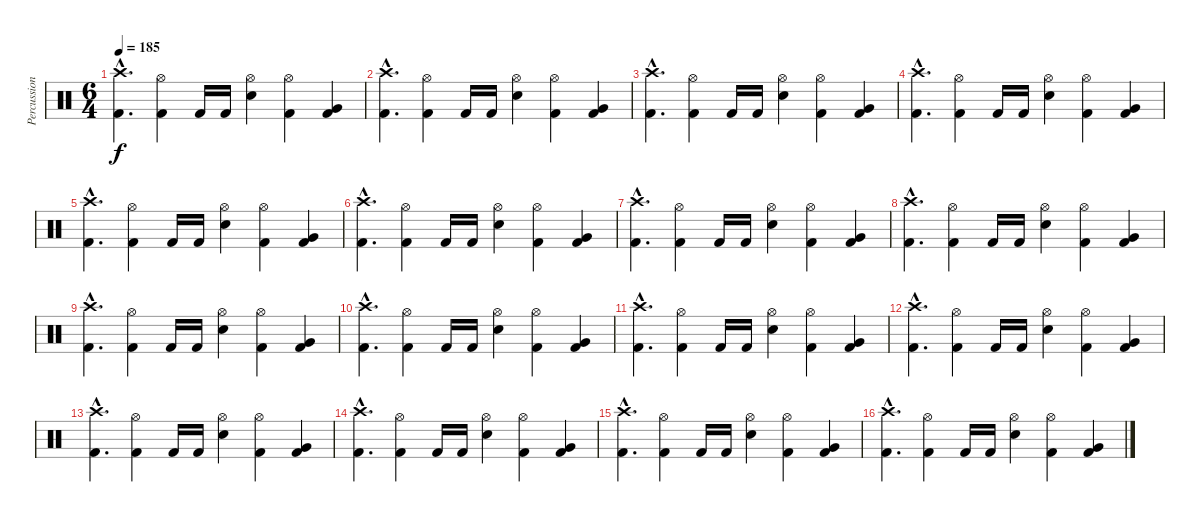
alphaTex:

\track ("Percussion" "Percussion") {instrument percussion}
\staff {score}
\articulation defaults
\ts (6 4)
\tempo 185
\clef neutral
\ks c
("Crash high (hit)"{hac} "Kick (hit) 2"{hac}).4{d dy f} ("Hi-Hat (open)" "Kick (hit) 2").4 "Kick (hit) 2".16 "Kick (hit) 2".16 ("Hi-Hat (open)" "Electric Snare (hit)").4 ("Hi-Hat (open)" "Kick (hit) 2").4 ("Very Low Tom (hit)" "Kick (hit) 2").4 |
("Crash high (hit)"{hac} "Kick (hit) 2"{hac}).4{d} ("Hi-Hat (open)" "Kick (hit) 2").4 "Kick (hit) 2".16 "Kick (hit) 2".16 ("Hi-Hat (open)" "Electric Snare (hit)").4 ("Hi-Hat (open)" "Kick (hit) 2").4 ("Very Low Tom (hit)" "Kick (hit) 2").4 |
("Crash high (hit)"{hac} "Kick (hit) 2"{hac}).4{d} ("Hi-Hat (open)" "Kick (hit) 2").4 "Kick (hit) 2".16 "Kick (hit) 2".16 ("Hi-Hat (open)" "Electric Snare (hit)").4 ("Hi-Hat (open)" "Kick (hit) 2").4 ("Very Low Tom (hit)" "Kick (hit) 2").4 |
("Crash high (hit)"{hac} "Kick (hit) 2"{hac}).4{d} ("Hi-Hat (open)" "Kick (hit) 2").4 "Kick (hit) 2".16 "Kick (hit) 2".16 ("Hi-Hat (open)" "Electric Snare (hit)").4 ("Hi-Hat (open)" "Kick (hit) 2").4 ("Very Low Tom (hit)" "Kick (hit) 2").4 |
("Crash high (hit)"{hac} "Kick (hit) 2"{hac}).4{d} ("Hi-Hat (open)" "Kick (hit) 2").4 "Kick (hit) 2".16 "Kick (hit) 2".16 ("Hi-Hat (open)" "Electric Snare (hit)").4 ("Hi-Hat (open)" "Kick (hit) 2").4 ("Very Low Tom (hit)" "Kick (hit) 2").4 |
("Crash high (hit)"{hac} "Kick (hit) 2"{hac}).4{d} ("Hi-Hat (open)" "Kick (hit) 2").4 "Kick (hit) 2".16 "Kick (hit) 2".16 ("Hi-Hat (open)" "Electric Snare (hit)").4 ("Hi-Hat (open)" "Kick (hit) 2").4 ("Very Low Tom (hit)" "Kick (hit) 2").4 |
("Crash high (hit)"{hac} "Kick (hit) 2"{hac}).4{d} ("Hi-Hat (open)" "Kick (hit) 2").4 "Kick (hit) 2".16 "Kick (hit) 2".16 ("Hi-Hat (open)" "Electric Snare (hit)").4 ("Hi-Hat (open)" "Kick (hit) 2").4 ("Very Low Tom (hit)" "Kick (hit) 2").4 |
("Crash high (hit)"{hac} "Kick (hit) 2"{hac}).4{d} ("Hi-Hat (open)" "Kick (hit) 2").4 "Kick (hit) 2".16 "Kick (hit) 2".16 ("Hi-Hat (open)" "Electric Snare (hit)").4 ("Hi-Hat (open)" "Kick (hit) 2").4 ("Very Low Tom (hit)" "Kick (hit) 2").4 |
("Crash high (hit)"{hac} "Kick (hit) 2"{hac}).4{d} ("Hi-Hat (open)" "Kick (hit) 2").4 "Kick (hit) 2".16 "Kick (hit) 2".16 ("Hi-Hat (open)" "Electric Snare (hit)").4 ("Hi-Hat (open)" "Kick (hit) 2").4 ("Very Low Tom (hit)" "Kick (hit) 2").4 |
("Crash high (hit)"{hac} "Kick (hit) 2"{hac}).4{d} ("Hi-Hat (open)" "Kick (hit) 2").4 "Kick (hit) 2".16 "Kick (hit) 2".16 ("Hi-Hat (open)" "Electric Snare (hit)").4 ("Hi-Hat (open)" "Kick (hit) 2").4 ("Very Low Tom (hit)" "Kick (hit) 2").4 |
("Crash high (hit)"{hac} "Kick (hit) 2"{hac}).4{d} ("Hi-Hat (open)" "Kick (hit) 2").4 "Kick (hit) 2".16 "Kick (hit) 2".16 ("Hi-Hat (open)" "Electric Snare (hit)").4 ("Hi-Hat (open)" "Kick (hit) 2").4 ("Very Low Tom (hit)" "Kick (hit) 2").4 |
("Crash high (hit)"{hac} "Kick (hit) 2"{hac}).4{d} ("Hi-Hat (open)" "Kick (hit) 2").4 "Kick (hit) 2".16 "Kick (hit) 2".16 ("Hi-Hat (open)" "Electric Snare (hit)").4 ("Hi-Hat (open)" "Kick (hit) 2").4 ("Very Low Tom (hit)" "Kick (hit) 2").4 |
("Crash high (hit)"{hac} "Kick (hit) 2"{hac}).4{d} ("Hi-Hat (open)" "Kick (hit) 2").4 "Kick (hit) 2".16 "Kick (hit) 2".16 ("Hi-Hat (open)" "Electric Snare (hit)").4 ("Hi-Hat (open)" "Kick (hit) 2").4 ("Very Low Tom (hit)" "Kick (hit) 2").4 |
("Crash high (hit)"{hac} "Kick (hit) 2"{hac}).4{d} ("Hi-Hat (open)" "Kick (hit) 2").4 "Kick (hit) 2".16 "Kick (hit) 2".16 ("Hi-Hat (open)" "Electric Snare (hit)").4 ("Hi-Hat (open)" "Kick (hit) 2").4 ("Very Low Tom (hit)" "Kick (hit) 2").4 |
("Crash high (hit)"{hac} "Kick (hit) 2"{hac}).4{d} ("Hi-Hat (open)" "Kick (hit) 2").4 "Kick (hit) 2".16 "Kick (hit) 2".16 ("Hi-Hat (open)" "Electric Snare (hit)").4 ("Hi-Hat (open)" "Kick (hit) 2").4 ("Very Low Tom (hit)" "Kick (hit) 2").4 |
("Crash high (hit)"{hac} "Kick (hit) 2"{hac}).4{d} ("Hi-Hat (open)" "Kick (hit) 2").4 "Kick (hit) 2".16 "Kick (hit) 2".16 ("Hi-Hat (open)" "Electric Snare (hit)").4 ("Hi-Hat (open)" "Kick (hit) 2").4 ("Very Low Tom (hit)" "Kick (hit) 2").4
